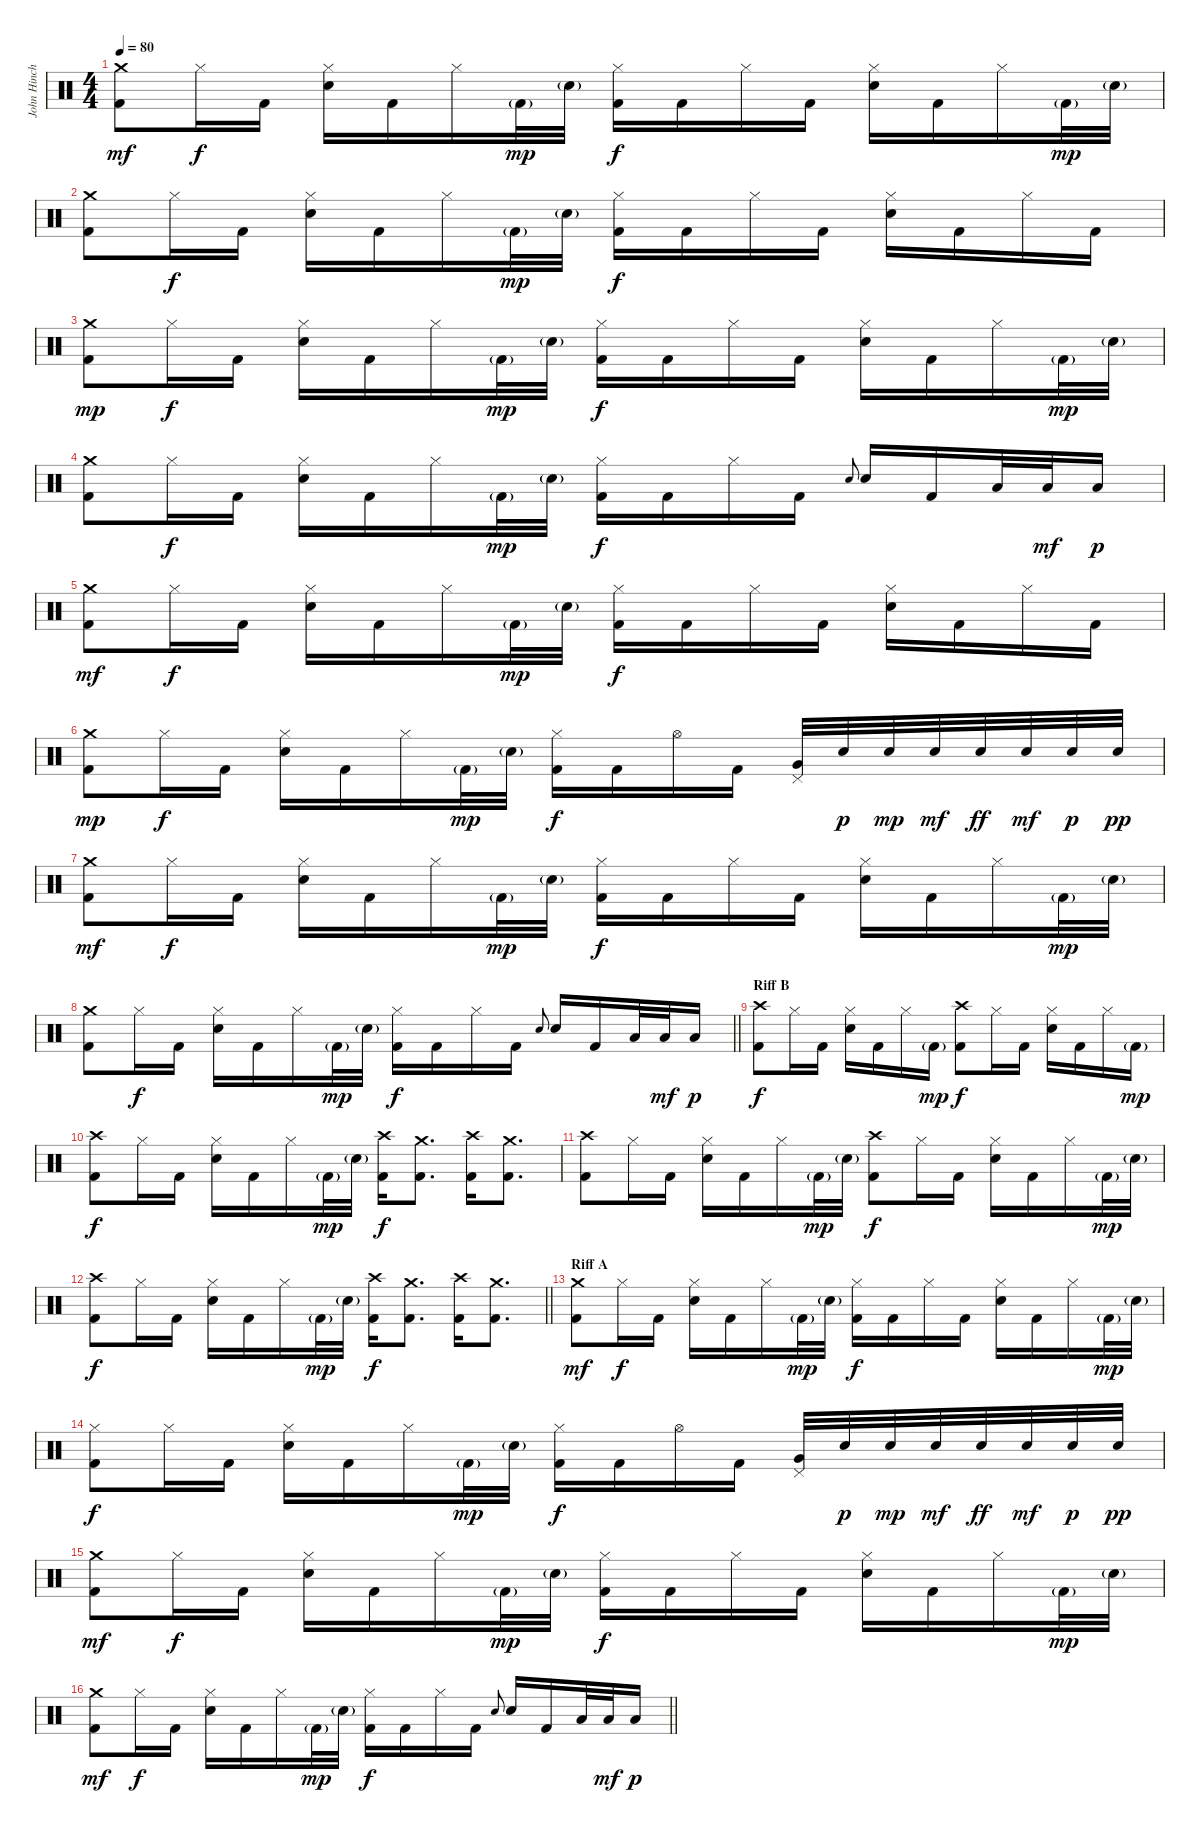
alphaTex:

\track ("John Hinch" "John Hinch") {instrument percussion}
\staff {score}
\articulation defaults
\ts (4 4)
\section ("" "")
\tempo 80
\clef neutral
\ks c
("Crash medium (hit)" "Kick (hit) 2").8{dy mf} "Hi-Hat (closed)".16{dy f} "Kick (hit) 2".16 ("Hi-Hat (closed)" "Electric Snare (hit)").16 "Kick (hit) 2".16 "Hi-Hat (closed)".16 "Kick (hit) 2"{g}.32{dy mp} "Electric Snare (hit)"{g}.32 ("Hi-Hat (closed)" "Kick (hit) 2").16{dy f} "Kick (hit) 2".16 "Hi-Hat (closed)".16 "Kick (hit) 2".16 ("Hi-Hat (closed)" "Electric Snare (hit)").16 "Kick (hit) 2".16 "Hi-Hat (closed)".16 "Kick (hit) 2"{g}.32{dy mp} "Electric Snare (hit)"{g}.32 |
("Crash medium (hit)" "Kick (hit) 2").8 "Hi-Hat (closed)".16{dy f} "Kick (hit) 2".16 ("Hi-Hat (closed)" "Electric Snare (hit)").16 "Kick (hit) 2".16 "Hi-Hat (closed)".16 "Kick (hit) 2"{g}.32{dy mp} "Electric Snare (hit)"{g}.32 ("Hi-Hat (closed)" "Kick (hit) 2").16{dy f} "Kick (hit) 2".16 "Hi-Hat (closed)".16 "Kick (hit) 2".16 ("Hi-Hat (closed)" "Electric Snare (hit)").16 "Kick (hit) 2".16 "Hi-Hat (closed)".16 "Kick (hit) 2".16 |
("Crash medium (hit)" "Kick (hit) 2").8{dy mp} "Hi-Hat (closed)".16{dy f} "Kick (hit) 2".16 ("Hi-Hat (closed)" "Electric Snare (hit)").16 "Kick (hit) 2".16 "Hi-Hat (closed)".16 "Kick (hit) 2"{g}.32{dy mp} "Electric Snare (hit)"{g}.32 ("Hi-Hat (closed)" "Kick (hit) 2").16{dy f} "Kick (hit) 2".16 "Hi-Hat (closed)".16 "Kick (hit) 2".16 ("Hi-Hat (closed)" "Electric Snare (hit)").16 "Kick (hit) 2".16 "Hi-Hat (closed)".16 "Kick (hit) 2"{g}.32{dy mp} "Electric Snare (hit)"{g}.32 |
("Crash medium (hit)" "Kick (hit) 2").8 "Hi-Hat (closed)".16{dy f} "Kick (hit) 2".16 ("Hi-Hat (closed)" "Electric Snare (hit)").16 "Kick (hit) 2".16 "Hi-Hat (closed)".16 "Kick (hit) 2"{g}.32{dy mp} "Electric Snare (hit)"{g}.32 ("Hi-Hat (closed)" "Kick (hit) 2").16{dy f} "Kick (hit) 2".16 "Hi-Hat (closed)".16 "Kick (hit) 2".16 "Electric Snare (hit)".8{gr onbeat} "Electric Snare (hit)".16 "Kick (hit) 2".16 "Low Tom (hit)".32 "Low Tom (hit)".32{dy mf} "Low Tom (hit)".16{dy p} |
("Crash medium (hit)" "Kick (hit) 2").8{dy mf} "Hi-Hat (closed)".16{dy f} "Kick (hit) 2".16 ("Hi-Hat (closed)" "Electric Snare (hit)").16 "Kick (hit) 2".16 "Hi-Hat (closed)".16 "Kick (hit) 2"{g}.32{dy mp} "Electric Snare (hit)"{g}.32 ("Hi-Hat (closed)" "Kick (hit) 2").16{dy f} "Kick (hit) 2".16 "Hi-Hat (closed)".16 "Kick (hit) 2".16 ("Hi-Hat (closed)" "Electric Snare (hit)").16 "Kick (hit) 2".16 "Hi-Hat (closed)".16 "Kick (hit) 2".16 |
("Crash medium (hit)" "Kick (hit) 2").8{dy mp} "Hi-Hat (closed)".16{dy f} "Kick (hit) 2".16 ("Hi-Hat (closed)" "Electric Snare (hit)").16 "Kick (hit) 2".16 "Hi-Hat (closed)".16 "Kick (hit) 2"{g}.32{dy mp} "Electric Snare (hit)"{g}.32 ("Hi-Hat (closed)" "Kick (hit) 2").16{dy f} "Kick (hit) 2".16 "Hi-Hat (open)".16 "Kick (hit) 2".16 ("Pedal Hi-Hat (hit)" "Very Low Tom (hit)").32 "Electric Snare (hit)".32{dy p} "Electric Snare (hit)".32{dy mp} "Electric Snare (hit)".32{dy mf} "Electric Snare (hit)".32{dy ff} "Electric Snare (hit)".32{dy mf} "Electric Snare (hit)".32{dy p} "Electric Snare (hit)".32{dy pp} |
("Crash medium (hit)" "Kick (hit) 2").8{dy mf} "Hi-Hat (closed)".16{dy f} "Kick (hit) 2".16 ("Hi-Hat (closed)" "Electric Snare (hit)").16 "Kick (hit) 2".16 "Hi-Hat (closed)".16 "Kick (hit) 2"{g}.32{dy mp} "Electric Snare (hit)"{g}.32 ("Hi-Hat (closed)" "Kick (hit) 2").16{dy f} "Kick (hit) 2".16 "Hi-Hat (closed)".16 "Kick (hit) 2".16 ("Hi-Hat (closed)" "Electric Snare (hit)").16 "Kick (hit) 2".16 "Hi-Hat (closed)".16 "Kick (hit) 2"{g}.32{dy mp} "Electric Snare (hit)"{g}.32 |
\barLineRight lightlight
("Crash medium (hit)" "Kick (hit) 2").8 "Hi-Hat (closed)".16{dy f} "Kick (hit) 2".16 ("Hi-Hat (closed)" "Electric Snare (hit)").16 "Kick (hit) 2".16 "Hi-Hat (closed)".16 "Kick (hit) 2"{g}.32{dy mp} "Electric Snare (hit)"{g}.32 ("Hi-Hat (closed)" "Kick (hit) 2").16{dy f} "Kick (hit) 2".16 "Hi-Hat (closed)".16 "Kick (hit) 2".16 "Electric Snare (hit)".8{gr onbeat} "Electric Snare (hit)".16 "Kick (hit) 2".16 "Low Tom (hit)".32 "Low Tom (hit)".32{dy mf} "Low Tom (hit)".16{dy p} |
\section ("" "Riff B")
("Crash high (hit)" "Kick (hit) 2").8{dy f} "Hi-Hat (closed)".16 "Kick (hit) 2".16 ("Hi-Hat (closed)" "Electric Snare (hit)").16 "Kick (hit) 2".16 "Hi-Hat (closed)".16 "Kick (hit) 2"{g}.16{dy mp} ("Crash high (hit)" "Kick (hit) 2").8{dy f} "Hi-Hat (closed)".16 "Kick (hit) 2".16 ("Hi-Hat (closed)" "Electric Snare (hit)").16 "Kick (hit) 2".16 "Hi-Hat (closed)".16 "Kick (hit) 2"{g}.16{dy mp} |
("Crash high (hit)" "Kick (hit) 2").8{dy f} "Hi-Hat (closed)".16 "Kick (hit) 2".16 ("Hi-Hat (closed)" "Electric Snare (hit)").16 "Kick (hit) 2".16 "Hi-Hat (closed)".16 "Kick (hit) 2"{g}.32{dy mp} "Electric Snare (hit)"{g}.32 ("Crash high (hit)" "Kick (hit) 2").16{dy f} ("Crash medium (hit)" "Kick (hit) 2").8{d} ("Crash high (hit)" "Kick (hit) 2").16 ("Crash medium (hit)" "Kick (hit) 2").8{d} |
("Crash high (hit)" "Kick (hit) 2").8 "Hi-Hat (closed)".16 "Kick (hit) 2".16 ("Hi-Hat (closed)" "Electric Snare (hit)").16 "Kick (hit) 2".16 "Hi-Hat (closed)".16 "Kick (hit) 2"{g}.32{dy mp} "Electric Snare (hit)"{g}.32 ("Crash high (hit)" "Kick (hit) 2").8{dy f} "Hi-Hat (closed)".16 "Kick (hit) 2".16 ("Hi-Hat (closed)" "Electric Snare (hit)").16 "Kick (hit) 2".16 "Hi-Hat (closed)".16 "Kick (hit) 2"{g}.32{dy mp} "Electric Snare (hit)"{g}.32 |
\barLineRight lightlight
("Crash high (hit)" "Kick (hit) 2").8{dy f} "Hi-Hat (closed)".16 "Kick (hit) 2".16 ("Hi-Hat (closed)" "Electric Snare (hit)").16 "Kick (hit) 2".16 "Hi-Hat (closed)".16 "Kick (hit) 2"{g}.32{dy mp} "Electric Snare (hit)"{g}.32 ("Crash high (hit)" "Kick (hit) 2").16{dy f} ("Crash medium (hit)" "Kick (hit) 2").8{d} ("Crash high (hit)" "Kick (hit) 2").16 ("Crash medium (hit)" "Kick (hit) 2").8{d} |
\section ("" "Riff A")
("Crash medium (hit)" "Kick (hit) 2").8{dy mf} "Hi-Hat (closed)".16{dy f} "Kick (hit) 2".16 ("Hi-Hat (closed)" "Electric Snare (hit)").16 "Kick (hit) 2".16 "Hi-Hat (closed)".16 "Kick (hit) 2"{g}.32{dy mp} "Electric Snare (hit)"{g}.32 ("Hi-Hat (closed)" "Kick (hit) 2").16{dy f} "Kick (hit) 2".16 "Hi-Hat (closed)".16 "Kick (hit) 2".16 ("Hi-Hat (closed)" "Electric Snare (hit)").16 "Kick (hit) 2".16 "Hi-Hat (closed)".16 "Kick (hit) 2"{g}.32{dy mp} "Electric Snare (hit)"{g}.32 |
("Hi-Hat (closed)" "Kick (hit) 2").8{dy f} "Hi-Hat (closed)".16 "Kick (hit) 2".16 ("Hi-Hat (closed)" "Electric Snare (hit)").16 "Kick (hit) 2".16 "Hi-Hat (closed)".16 "Kick (hit) 2"{g}.32{dy mp} "Electric Snare (hit)"{g}.32 ("Hi-Hat (closed)" "Kick (hit) 2").16{dy f} "Kick (hit) 2".16 "Hi-Hat (open)".16 "Kick (hit) 2".16 ("Pedal Hi-Hat (hit)" "Very Low Tom (hit)").32 "Electric Snare (hit)".32{dy p} "Electric Snare (hit)".32{dy mp} "Electric Snare (hit)".32{dy mf} "Electric Snare (hit)".32{dy ff} "Electric Snare (hit)".32{dy mf} "Electric Snare (hit)".32{dy p} "Electric Snare (hit)".32{dy pp} |
("Crash medium (hit)" "Kick (hit) 2").8{dy mf} "Hi-Hat (closed)".16{dy f} "Kick (hit) 2".16 ("Hi-Hat (closed)" "Electric Snare (hit)").16 "Kick (hit) 2".16 "Hi-Hat (closed)".16 "Kick (hit) 2"{g}.32{dy mp} "Electric Snare (hit)"{g}.32 ("Hi-Hat (closed)" "Kick (hit) 2").16{dy f} "Kick (hit) 2".16 "Hi-Hat (closed)".16 "Kick (hit) 2".16 ("Hi-Hat (closed)" "Electric Snare (hit)").16 "Kick (hit) 2".16 "Hi-Hat (closed)".16 "Kick (hit) 2"{g}.32{dy mp} "Electric Snare (hit)"{g}.32 |
\barLineRight lightlight
("Crash medium (hit)" "Kick (hit) 2").8{dy mf} "Hi-Hat (closed)".16{dy f} "Kick (hit) 2".16 ("Hi-Hat (closed)" "Electric Snare (hit)").16 "Kick (hit) 2".16 "Hi-Hat (closed)".16 "Kick (hit) 2"{g}.32{dy mp} "Electric Snare (hit)"{g}.32 ("Hi-Hat (closed)" "Kick (hit) 2").16{dy f} "Kick (hit) 2".16 "Hi-Hat (closed)".16 "Kick (hit) 2".16 "Electric Snare (hit)".8{gr onbeat} "Electric Snare (hit)".16 "Kick (hit) 2".16 "Low Tom (hit)".32 "Low Tom (hit)".32{dy mf} "Low Tom (hit)".16{dy p}
